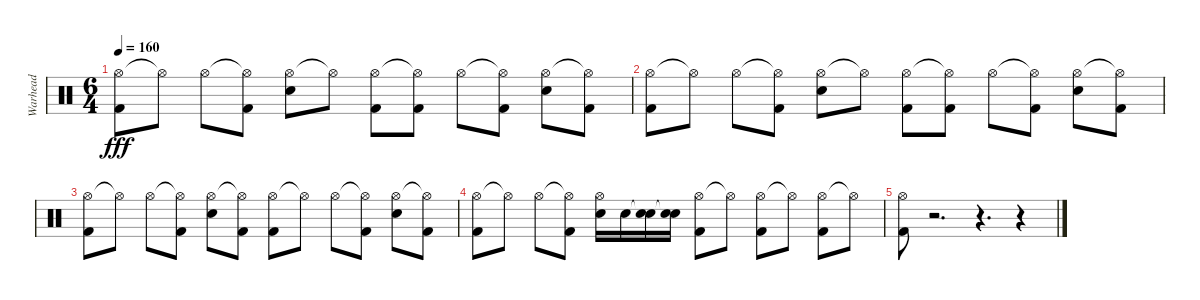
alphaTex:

\track ("Warhead" "Warhead") {instrument percussion}
\staff {score}
\articulation defaults
\ts (6 4)
\tempo 160
\clef neutral
\ks c
("Hi-Hat (open)" "Kick (hit) 2").8{dy fff} "Hi-Hat (open)"{t}.8 "Hi-Hat (open)".8 ("Hi-Hat (open)"{t} "Kick (hit) 2").8 ("Hi-Hat (open)" "Electric Snare (hit)").8 "Hi-Hat (open)"{t}.8 ("Hi-Hat (open)" "Kick (hit) 2").8 ("Hi-Hat (open)"{t} "Kick (hit) 2").8 "Hi-Hat (open)".8 ("Hi-Hat (open)"{t} "Kick (hit) 2").8 ("Hi-Hat (open)" "Electric Snare (hit)").8 ("Hi-Hat (open)"{t} "Kick (hit) 2").8 |
("Hi-Hat (open)" "Kick (hit) 2").8 "Hi-Hat (open)"{t}.8 "Hi-Hat (open)".8 ("Hi-Hat (open)"{t} "Kick (hit) 2").8 ("Hi-Hat (open)" "Electric Snare (hit)").8 "Hi-Hat (open)"{t}.8 ("Hi-Hat (open)" "Kick (hit) 2").8 ("Hi-Hat (open)"{t} "Kick (hit) 2").8 "Hi-Hat (open)".8 ("Hi-Hat (open)"{t} "Kick (hit) 2").8 ("Hi-Hat (open)" "Electric Snare (hit)").8 ("Hi-Hat (open)"{t} "Kick (hit) 2").8 |
("Hi-Hat (open)" "Kick (hit) 2").8 "Hi-Hat (open)"{t}.8 "Hi-Hat (open)".8 ("Hi-Hat (open)"{t} "Kick (hit) 2").8 ("Hi-Hat (open)" "Electric Snare (hit)").8 ("Hi-Hat (open)"{t} "Kick (hit) 2").8 ("Hi-Hat (open)" "Kick (hit) 2").8 "Hi-Hat (open)"{t}.8 "Hi-Hat (open)".8 ("Hi-Hat (open)"{t} "Kick (hit) 2").8 ("Hi-Hat (open)" "Electric Snare (hit)").8 ("Hi-Hat (open)"{t} "Kick (hit) 2").8 |
("Hi-Hat (open)" "Kick (hit) 2").8 "Hi-Hat (open)"{t}.8 "Hi-Hat (open)".8 ("Hi-Hat (open)"{t} "Kick (hit) 2").8 ("Hi-Hat (open)" "Electric Snare (hit)").16 "Electric Snare (hit)".16 ("Snare (hit)"{t} "Electric Snare (hit)").16 ("Snare (hit)"{t} "Electric Snare (hit)").16 ("Hi-Hat (open)" "Kick (hit) 2").8 "Hi-Hat (open)"{t}.8 ("Hi-Hat (open)" "Kick (hit) 2").8 "Hi-Hat (open)"{t}.8 ("Hi-Hat (open)" "Kick (hit) 2").8 "Hi-Hat (open)"{t}.8 |
("Hi-Hat (open)" "Kick (hit) 2").8 r.2{d} r.4{d} r.4
